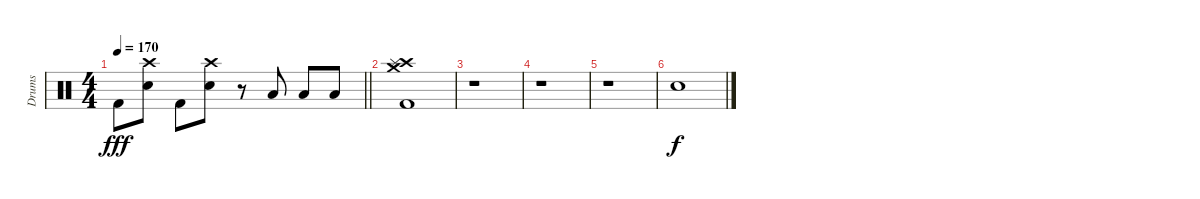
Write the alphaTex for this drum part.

\track ("Drums" "Drums") {instrument percussion}
\staff {score}
\articulation defaults
\ts (4 4)
\tempo 170
\clef neutral
\barLineRight lightlight
\ks c "Kick (hit) 2".8{dy fff}
("Crash high (hit)" "Electric Snare (hit)").8 "Kick (hit) 2".8 ("Crash high (hit)" "Electric Snare (hit)").8 r.8 "Low Tom (hit)".8 "Low Floor Tom (hit)".8 "Low Floor Tom (hit)".8 |
("Kick (hit) 2" "Crash medium (hit)" "Crash high (hit)" "Splash (hit)").1 |
r.1 |
r.1 |
r.1 |
"Snare (hit)".1{dy f}
